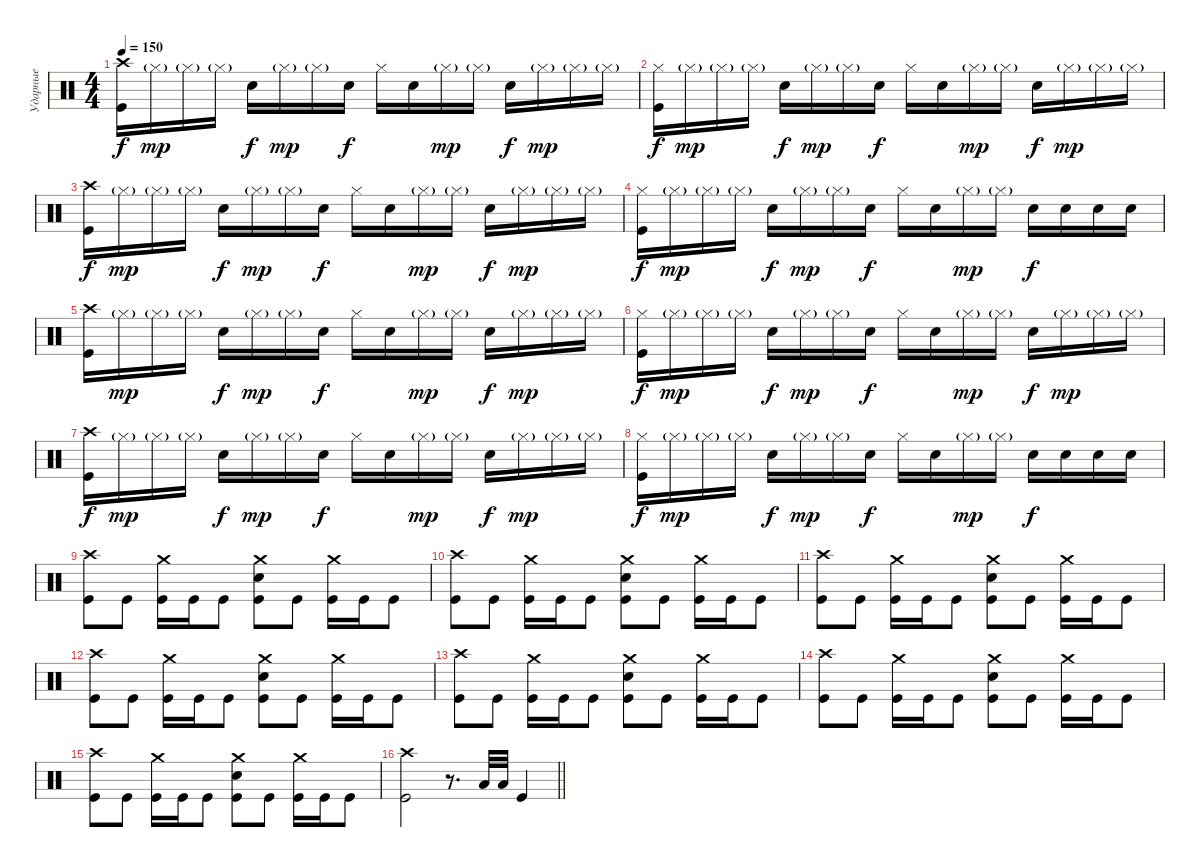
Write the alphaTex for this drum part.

\track ("Ударные" "Ударные") {instrument percussion}
\staff {score}
\articulation defaults
\ts (4 4)
\tempo 150
\clef neutral
\ks c
("Crash high (hit)" "Kick (hit)").16{dy f} "Hi-Hat (closed)"{g}.16{dy mp} "Hi-Hat (closed)"{g}.16 "Hi-Hat (closed)"{g}.16 "Electric Snare (hit)".16{dy f} "Hi-Hat (closed)"{g}.16{dy mp} "Hi-Hat (closed)"{g}.16 "Electric Snare (hit)".16{dy f} "Hi-Hat (closed)".16 "Electric Snare (hit)".16 "Hi-Hat (closed)"{g}.16{dy mp} "Hi-Hat (closed)"{g}.16 "Electric Snare (hit)".16{dy f} "Hi-Hat (closed)"{g}.16{dy mp} "Hi-Hat (closed)"{g}.16 "Hi-Hat (closed)"{g}.16 |
("Hi-Hat (closed)" "Kick (hit)").16{dy f} "Hi-Hat (closed)"{g}.16{dy mp} "Hi-Hat (closed)"{g}.16 "Hi-Hat (closed)"{g}.16 "Electric Snare (hit)".16{dy f} "Hi-Hat (closed)"{g}.16{dy mp} "Hi-Hat (closed)"{g}.16 "Electric Snare (hit)".16{dy f} "Hi-Hat (closed)".16 "Electric Snare (hit)".16 "Hi-Hat (closed)"{g}.16{dy mp} "Hi-Hat (closed)"{g}.16 "Electric Snare (hit)".16{dy f} "Hi-Hat (closed)"{g}.16{dy mp} "Hi-Hat (closed)"{g}.16 "Hi-Hat (closed)"{g}.16 |
("Crash high (hit)" "Kick (hit)").16{dy f} "Hi-Hat (closed)"{g}.16{dy mp} "Hi-Hat (closed)"{g}.16 "Hi-Hat (closed)"{g}.16 "Electric Snare (hit)".16{dy f} "Hi-Hat (closed)"{g}.16{dy mp} "Hi-Hat (closed)"{g}.16 "Electric Snare (hit)".16{dy f} "Hi-Hat (closed)".16 "Electric Snare (hit)".16 "Hi-Hat (closed)"{g}.16{dy mp} "Hi-Hat (closed)"{g}.16 "Electric Snare (hit)".16{dy f} "Hi-Hat (closed)"{g}.16{dy mp} "Hi-Hat (closed)"{g}.16 "Hi-Hat (closed)"{g}.16 |
("Hi-Hat (closed)" "Kick (hit)").16{dy f} "Hi-Hat (closed)"{g}.16{dy mp} "Hi-Hat (closed)"{g}.16 "Hi-Hat (closed)"{g}.16 "Electric Snare (hit)".16{dy f} "Hi-Hat (closed)"{g}.16{dy mp} "Hi-Hat (closed)"{g}.16 "Electric Snare (hit)".16{dy f} "Hi-Hat (closed)".16 "Electric Snare (hit)".16 "Hi-Hat (closed)"{g}.16{dy mp} "Hi-Hat (closed)"{g}.16 "Electric Snare (hit)".16{dy f} "Electric Snare (hit)".16 "Electric Snare (hit)".16 "Electric Snare (hit)".16 |
("Crash high (hit)" "Kick (hit)").16 "Hi-Hat (closed)"{g}.16{dy mp} "Hi-Hat (closed)"{g}.16 "Hi-Hat (closed)"{g}.16 "Electric Snare (hit)".16{dy f} "Hi-Hat (closed)"{g}.16{dy mp} "Hi-Hat (closed)"{g}.16 "Electric Snare (hit)".16{dy f} "Hi-Hat (closed)".16 "Electric Snare (hit)".16 "Hi-Hat (closed)"{g}.16{dy mp} "Hi-Hat (closed)"{g}.16 "Electric Snare (hit)".16{dy f} "Hi-Hat (closed)"{g}.16{dy mp} "Hi-Hat (closed)"{g}.16 "Hi-Hat (closed)"{g}.16 |
("Hi-Hat (closed)" "Kick (hit)").16{dy f} "Hi-Hat (closed)"{g}.16{dy mp} "Hi-Hat (closed)"{g}.16 "Hi-Hat (closed)"{g}.16 "Electric Snare (hit)".16{dy f} "Hi-Hat (closed)"{g}.16{dy mp} "Hi-Hat (closed)"{g}.16 "Electric Snare (hit)".16{dy f} "Hi-Hat (closed)".16 "Electric Snare (hit)".16 "Hi-Hat (closed)"{g}.16{dy mp} "Hi-Hat (closed)"{g}.16 "Electric Snare (hit)".16{dy f} "Hi-Hat (closed)"{g}.16{dy mp} "Hi-Hat (closed)"{g}.16 "Hi-Hat (closed)"{g}.16 |
("Crash high (hit)" "Kick (hit)").16{dy f} "Hi-Hat (closed)"{g}.16{dy mp} "Hi-Hat (closed)"{g}.16 "Hi-Hat (closed)"{g}.16 "Electric Snare (hit)".16{dy f} "Hi-Hat (closed)"{g}.16{dy mp} "Hi-Hat (closed)"{g}.16 "Electric Snare (hit)".16{dy f} "Hi-Hat (closed)".16 "Electric Snare (hit)".16 "Hi-Hat (closed)"{g}.16{dy mp} "Hi-Hat (closed)"{g}.16 "Electric Snare (hit)".16{dy f} "Hi-Hat (closed)"{g}.16{dy mp} "Hi-Hat (closed)"{g}.16 "Hi-Hat (closed)"{g}.16 |
("Hi-Hat (closed)" "Kick (hit)").16{dy f} "Hi-Hat (closed)"{g}.16{dy mp} "Hi-Hat (closed)"{g}.16 "Hi-Hat (closed)"{g}.16 "Electric Snare (hit)".16{dy f} "Hi-Hat (closed)"{g}.16{dy mp} "Hi-Hat (closed)"{g}.16 "Electric Snare (hit)".16{dy f} "Hi-Hat (closed)".16 "Electric Snare (hit)".16 "Hi-Hat (closed)"{g}.16{dy mp} "Hi-Hat (closed)"{g}.16 "Electric Snare (hit)".16{dy f} "Electric Snare (hit)".16 "Electric Snare (hit)".16 "Electric Snare (hit)".16 |
("Crash high (hit)" "Kick (hit)").8 "Kick (hit)".8 ("Crash medium (hit)" "Kick (hit)").16 "Kick (hit)".16 "Kick (hit)".8 ("Crash medium (hit)" "Electric Snare (hit)" "Kick (hit)").8 "Kick (hit)".8 ("Crash medium (hit)" "Kick (hit)").16 "Kick (hit)".16 "Kick (hit)".8 |
("Crash high (hit)" "Kick (hit)").8 "Kick (hit)".8 ("Crash medium (hit)" "Kick (hit)").16 "Kick (hit)".16 "Kick (hit)".8 ("Crash medium (hit)" "Electric Snare (hit)" "Kick (hit)").8 "Kick (hit)".8 ("Crash medium (hit)" "Kick (hit)").16 "Kick (hit)".16 "Kick (hit)".8 |
("Crash high (hit)" "Kick (hit)").8 "Kick (hit)".8 ("Crash medium (hit)" "Kick (hit)").16 "Kick (hit)".16 "Kick (hit)".8 ("Crash medium (hit)" "Electric Snare (hit)" "Kick (hit)").8 "Kick (hit)".8 ("Crash medium (hit)" "Kick (hit)").16 "Kick (hit)".16 "Kick (hit)".8 |
("Crash high (hit)" "Kick (hit)").8 "Kick (hit)".8 ("Crash medium (hit)" "Kick (hit)").16 "Kick (hit)".16 "Kick (hit)".8 ("Crash medium (hit)" "Electric Snare (hit)" "Kick (hit)").8 "Kick (hit)".8 ("Crash medium (hit)" "Kick (hit)").16 "Kick (hit)".16 "Kick (hit)".8 |
("Crash high (hit)" "Kick (hit)").8 "Kick (hit)".8 ("Crash medium (hit)" "Kick (hit)").16 "Kick (hit)".16 "Kick (hit)".8 ("Crash medium (hit)" "Electric Snare (hit)" "Kick (hit)").8 "Kick (hit)".8 ("Crash medium (hit)" "Kick (hit)").16 "Kick (hit)".16 "Kick (hit)".8 |
("Crash high (hit)" "Kick (hit)").8 "Kick (hit)".8 ("Crash medium (hit)" "Kick (hit)").16 "Kick (hit)".16 "Kick (hit)".8 ("Crash medium (hit)" "Electric Snare (hit)" "Kick (hit)").8 "Kick (hit)".8 ("Crash medium (hit)" "Kick (hit)").16 "Kick (hit)".16 "Kick (hit)".8 |
("Crash high (hit)" "Kick (hit)").8 "Kick (hit)".8 ("Crash medium (hit)" "Kick (hit)").16 "Kick (hit)".16 "Kick (hit)".8 ("Crash medium (hit)" "Electric Snare (hit)" "Kick (hit)").8 "Kick (hit)".8 ("Crash medium (hit)" "Kick (hit)").16 "Kick (hit)".16 "Kick (hit)".8 |
\barLineRight lightlight
("Crash high (hit)" "Kick (hit)").2 r.8{d} "Low Tom (hit)".32 "Low Floor Tom (hit)".32 "Kick (hit)".4
